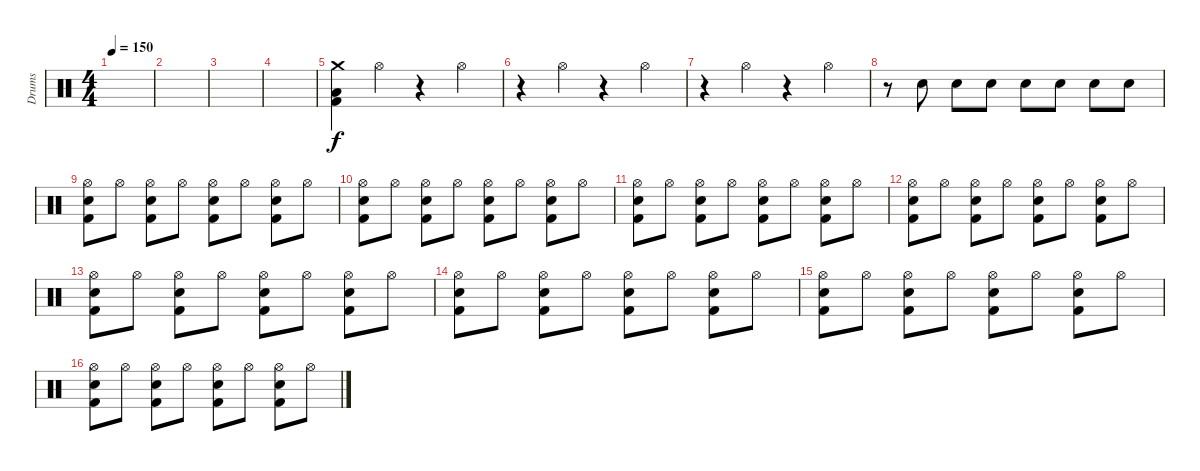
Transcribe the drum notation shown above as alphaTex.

\track ("Drums" "Drums") {instrument percussion}
\staff {score}
\articulation defaults
\ts (4 4)
\tempo 150
\clef neutral
\ks c
|
|
|
|
("Crash medium (hit)" "Low Floor Tom (hit)" "Kick (hit) 2").4 "Hi-Hat (open)".4 r.4 "Hi-Hat (open)".4 |
r.4 "Hi-Hat (open)".4 r.4 "Hi-Hat (open)".4 |
r.4 "Hi-Hat (open)".4 r.4 "Hi-Hat (open)".4 |
r.8 "Snare (hit) 2".8 "Snare (hit) 2".8 "Snare (hit) 2".8 "Snare (hit) 2".8 "Snare (hit) 2".8 "Snare (hit) 2".8 "Snare (hit) 2".8 |
("Hi-Hat (open)" "Snare (hit) 2" "Kick (hit) 2").8 "Hi-Hat (open)".8 ("Hi-Hat (open)" "Snare (hit) 2" "Kick (hit) 2").8 "Hi-Hat (open)".8 ("Hi-Hat (open)" "Snare (hit) 2" "Kick (hit) 2").8 "Hi-Hat (open)".8 ("Hi-Hat (open)" "Snare (hit) 2" "Kick (hit) 2").8 "Hi-Hat (open)".8 |
("Hi-Hat (open)" "Snare (hit) 2" "Kick (hit) 2").8 "Hi-Hat (open)".8 ("Hi-Hat (open)" "Snare (hit) 2" "Kick (hit) 2").8 "Hi-Hat (open)".8 ("Hi-Hat (open)" "Snare (hit) 2" "Kick (hit) 2").8 "Hi-Hat (open)".8 ("Hi-Hat (open)" "Snare (hit) 2" "Kick (hit) 2").8 "Hi-Hat (open)".8 |
("Hi-Hat (open)" "Snare (hit) 2" "Kick (hit) 2").8 "Hi-Hat (open)".8 ("Hi-Hat (open)" "Snare (hit) 2" "Kick (hit) 2").8 "Hi-Hat (open)".8 ("Hi-Hat (open)" "Snare (hit) 2" "Kick (hit) 2").8 "Hi-Hat (open)".8 ("Hi-Hat (open)" "Snare (hit) 2" "Kick (hit) 2").8 "Hi-Hat (open)".8 |
("Hi-Hat (open)" "Snare (hit) 2" "Kick (hit) 2").8 "Hi-Hat (open)".8 ("Hi-Hat (open)" "Snare (hit) 2" "Kick (hit) 2").8 "Hi-Hat (open)".8 ("Hi-Hat (open)" "Snare (hit) 2" "Kick (hit) 2").8 "Hi-Hat (open)".8 ("Hi-Hat (open)" "Snare (hit) 2" "Kick (hit) 2").8 "Hi-Hat (open)".8 |
("Hi-Hat (open)" "Snare (hit) 2" "Kick (hit) 2").8 "Hi-Hat (open)".8 ("Hi-Hat (open)" "Snare (hit) 2" "Kick (hit) 2").8 "Hi-Hat (open)".8 ("Hi-Hat (open)" "Snare (hit) 2" "Kick (hit) 2").8 "Hi-Hat (open)".8 ("Hi-Hat (open)" "Snare (hit) 2" "Kick (hit) 2").8 "Hi-Hat (open)".8 |
("Hi-Hat (open)" "Snare (hit) 2" "Kick (hit) 2").8 "Hi-Hat (open)".8 ("Hi-Hat (open)" "Snare (hit) 2" "Kick (hit) 2").8 "Hi-Hat (open)".8 ("Hi-Hat (open)" "Snare (hit) 2" "Kick (hit) 2").8 "Hi-Hat (open)".8 ("Hi-Hat (open)" "Snare (hit) 2" "Kick (hit) 2").8 "Hi-Hat (open)".8 |
("Hi-Hat (open)" "Snare (hit) 2" "Kick (hit) 2").8 "Hi-Hat (open)".8 ("Hi-Hat (open)" "Snare (hit) 2" "Kick (hit) 2").8 "Hi-Hat (open)".8 ("Hi-Hat (open)" "Snare (hit) 2" "Kick (hit) 2").8 "Hi-Hat (open)".8 ("Hi-Hat (open)" "Snare (hit) 2" "Kick (hit) 2").8 "Hi-Hat (open)".8 |
("Hi-Hat (open)" "Snare (hit) 2" "Kick (hit) 2").8 "Hi-Hat (open)".8 ("Hi-Hat (open)" "Snare (hit) 2" "Kick (hit) 2").8 "Hi-Hat (open)".8 ("Hi-Hat (open)" "Snare (hit) 2" "Kick (hit) 2").8 "Hi-Hat (open)".8 ("Hi-Hat (open)" "Snare (hit) 2" "Kick (hit) 2").8 "Hi-Hat (open)".8
